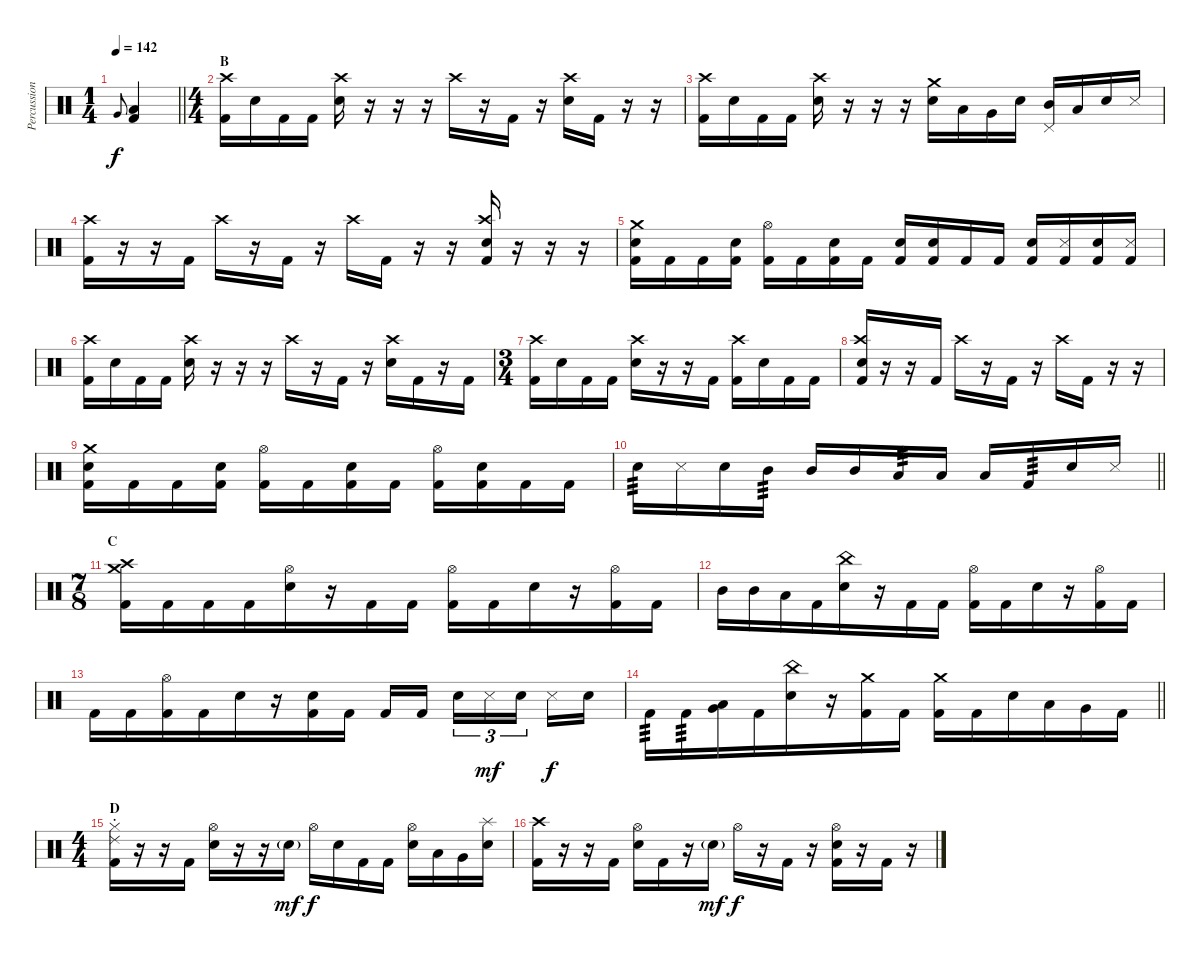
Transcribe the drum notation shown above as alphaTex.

\track ("Percussion" "Percussion") {instrument percussion}
\staff {score}
\articulation defaults
\ts (1 4)
\tempo 142
\clef neutral
\barLineRight lightlight
\ks c "Very Low Tom (hit)".8{gr onbeat dy f}
("Low Floor Tom (hit)" "Kick (hit) 2").4 |
\ts (4 4)
\section ("" "B")
("Crash high (hit)" "Kick (hit) 2").16 "Snare (hit) 2".16 "Kick (hit) 2".16 "Kick (hit) 2".16 ("Crash high (hit)" "Snare (hit) 2").16 r.16 r.16 r.16 "Crash high (hit)".16 r.16 "Kick (hit) 2".16 r.16 ("Crash high (hit)" "Snare (hit) 2").16 "Kick (hit) 2".16 r.16 r.16 |
("Crash high (hit)" "Kick (hit) 2").16 "Snare (hit) 2".16 "Kick (hit) 2".16 "Kick (hit) 2".16 ("Crash high (hit)" "Snare (hit) 2").16 r.16 r.16 r.16 ("Crash medium (hit)" "Snare (hit) 2").16 "Low Tom (hit)".16 "Very Low Tom (hit)".16 "Snare (hit) 2".16 ("Pedal Hi-Hat (hit)" "Mid Tom (hit)").16 "Low Tom (hit)".16 "Snare (hit) 2".16 "Metronome (hit)".16 |
("Crash high (hit)" "Kick (hit) 2").16 r.16 r.16 "Kick (hit) 2".16 "Crash high (hit)".16 r.16 "Kick (hit) 2".16 r.16 "Crash high (hit)".16 "Kick (hit) 2".16 r.16 r.16 ("Crash high (hit)" "Snare (hit) 2" "Kick (hit) 2").16 r.16 r.16 r.16 |
("Crash medium (hit)" "Snare (hit) 2" "Kick (hit) 2").16 "Kick (hit) 2".16 "Kick (hit) 2".16 ("Snare (hit) 2" "Kick (hit) 2").16 ("Hi-Hat (open)" "Kick (hit) 2").16 "Kick (hit) 2".16 ("Snare (hit) 2" "Kick (hit) 2").16 "Kick (hit) 2".16 ("Snare (hit)" "Kick (hit) 2").16 ("Snare (hit) 2" "Kick (hit) 2").16 "Kick (hit) 2".16 "Kick (hit) 2".16 ("Snare (hit) 2" "Kick (hit) 2").16 ("Metronome (hit)" "Kick (hit) 2").16 ("Snare (hit) 2" "Kick (hit) 2").16 ("Metronome (hit)" "Kick (hit) 2").16 |
("Crash high (hit)" "Kick (hit) 2").16 "Snare (hit) 2".16 "Kick (hit) 2".16 "Kick (hit) 2".16 ("Crash high (hit)" "Snare (hit) 2").16 r.16 r.16 r.16 "Crash high (hit)".16 r.16 "Kick (hit) 2".16 r.16 ("Crash high (hit)" "Snare (hit) 2").16 "Kick (hit) 2".16 r.16 "Kick (hit) 2".16 |
\ts (3 4)
("Crash high (hit)" "Kick (hit) 2").16 "Snare (hit) 2".16 "Kick (hit) 2".16 "Kick (hit) 2".16 ("Crash high (hit)" "Snare (hit) 2").16 r.16 r.16 "Kick (hit) 2".16 ("Crash high (hit)" "Kick (hit) 2").16 "Snare (hit) 2".16 "Kick (hit) 2".16 "Kick (hit) 2".16 |
("Crash high (hit)" "Snare (hit) 2" "Kick (hit) 2").16 r.16 r.16 "Kick (hit) 2".16 "Crash high (hit)".16 r.16 "Kick (hit) 2".16 r.16 "Crash high (hit)".16 "Kick (hit) 2".16 r.16 r.16 |
("Crash medium (hit)" "Snare (hit) 2" "Kick (hit) 2").16 "Kick (hit) 2".16 "Kick (hit) 2".16 ("Snare (hit) 2" "Kick (hit) 2").16 ("Hi-Hat (open)" "Kick (hit) 2").16 "Kick (hit) 2".16 ("Snare (hit) 2" "Kick (hit) 2").16 "Kick (hit) 2".16 ("Hi-Hat (open)" "Kick (hit) 2").16 ("Snare (hit) 2" "Kick (hit) 2").16 "Kick (hit) 2".16 "Kick (hit) 2".16 |
\barLineRight lightlight "Snare (hit) 2".16{tp 3} "Metronome (hit)".16 "Snare (hit) 2".16 "Mid Tom (hit)".16{tp 3} "Mid Tom (hit)".16 "Mid Tom (hit)".16 "Low Tom (hit)".16{tp 3} "Low Tom (hit)".16 "Low Tom (hit)".16 "Kick (hit) 2".16{tp 3} "Snare (hit) 2".16 "Metronome (hit)".16
|
\ts (7 8)
\section ("" "C")
("Crash medium (hit)" "Crash high (hit)" "Kick (hit) 2").16 "Kick (hit) 2".16 "Kick (hit) 2".16 "Kick (hit) 2".16 ("Hi-Hat (open)" "Snare (hit) 2").16 r.16 "Kick (hit) 2".16 "Kick (hit) 2".16 ("Hi-Hat (open)" "Kick (hit) 2").16 "Kick (hit) 2".16 "Snare (hit) 2".16 r.16 ("Hi-Hat (open)" "Kick (hit) 2").16 "Kick (hit) 2".16 |
"Mid Tom (hit)".16 "Mid Tom (hit)".16 "Low Tom (hit)".16 "Kick (hit) 2".16 ("China (hit)" "Snare (hit) 2").16 r.16 "Kick (hit) 2".16 "Kick (hit) 2".16 ("Hi-Hat (open)" "Kick (hit) 2").16 "Kick (hit) 2".16 "Snare (hit) 2".16 r.16 ("Hi-Hat (open)" "Kick (hit) 2").16 "Kick (hit) 2".16 |
"Kick (hit) 2".16 "Kick (hit) 2".16 ("Hi-Hat (open)" "Kick (hit) 2").16 "Kick (hit) 2".16 "Snare (hit) 2".16 r.16 ("Snare (hit)" "Kick (hit) 2").16 "Kick (hit) 2".16 "Kick (hit) 2".16 "Kick (hit) 2".16 "Snare (hit) 2".16{tu (3 2)} "Metronome (hit)".16{tu (3 2) dy mf} "Snare (hit) 2".16{tu (3 2)} "Metronome (hit)".16{dy f} "Snare (hit) 2".16 |
\barLineRight lightlight "Kick (hit) 2".16{tp 3} "Kick (hit) 2".16{tp 3}
("Low Tom (hit)" "Very Low Tom (hit)").16{bu 60} "Kick (hit) 2".16 ("China (hit)" "Snare (hit) 2").16 r.16 ("Crash medium (hit)" "Kick (hit) 2").16 "Kick (hit) 2".16 ("Crash medium (hit)" "Kick (hit) 2").16 "Kick (hit) 2".16 "Snare (hit) 2".16 "Low Tom (hit)".16 "Very Low Tom (hit)".16 "Kick (hit) 2".16 |
\ts (4 4)
\section ("" "D")
("Ride (choke) 2" "Hi-Hat (closed)" "Kick (hit) 2").16 r.16 r.16 "Kick (hit) 2".16 ("Hi-Hat (open)" "Snare (hit) 2").16 r.16 r.16 "Snare (hit) 2"{g}.16{dy mf} "Hi-Hat (open)".16{dy f} "Snare (hit) 2".16 "Kick (hit) 2".16 "Kick (hit) 2".16 ("Hi-Hat (open)" "Snare (hit) 2").16 "Low Tom (hit)".16 "Very Low Tom (hit)".16 ("Splash (hit)" "Snare (hit) 2").16 |
("Crash high (hit)" "Kick (hit) 2").16 r.16 r.16 "Kick (hit) 2".16 ("Hi-Hat (open)" "Snare (hit) 2").16 "Kick (hit) 2".16 r.16 "Snare (hit) 2"{g}.16{dy mf} "Hi-Hat (open)".16{dy f} r.16 "Kick (hit) 2".16 r.16 ("Hi-Hat (open)" "Snare (hit) 2" "Kick (hit) 2").16 r.16 "Kick (hit) 2".16 r.16
